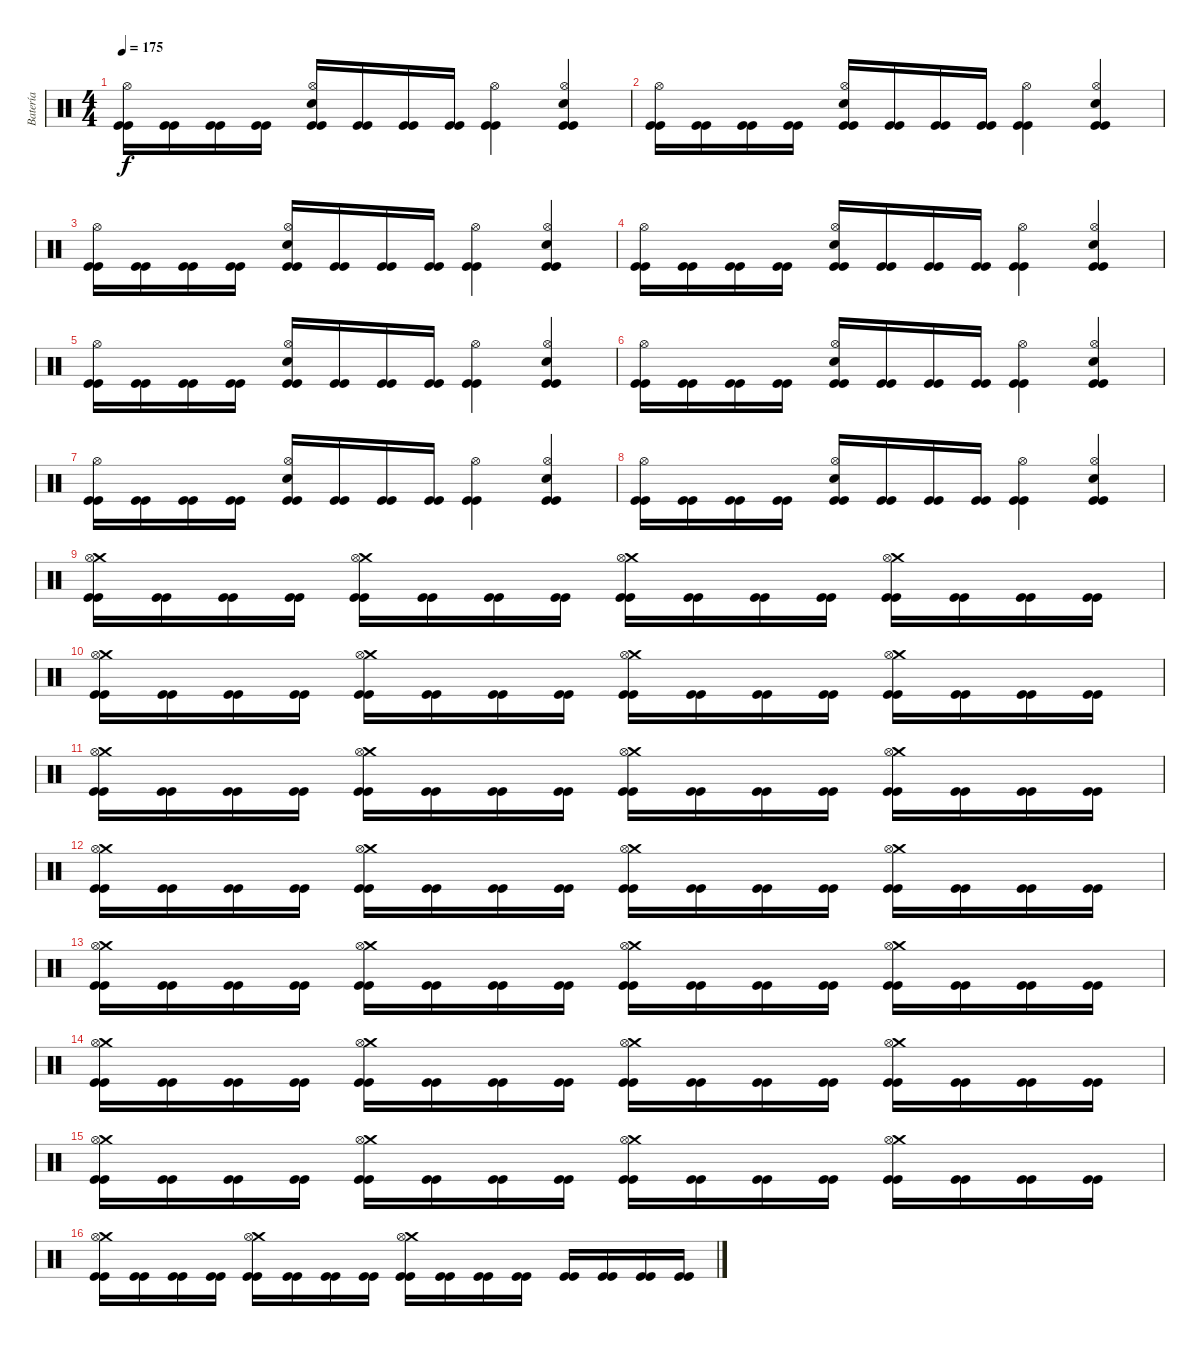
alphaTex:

\track ("Batería" "Batería") {instrument percussion}
\staff {score}
\articulation defaults
\ts (4 4)
\tempo 175
\clef neutral
\ks c
("Kick (hit)" "Kick (hit)" "Hi-Hat (open)").16{dy f} ("Kick (hit)" "Kick (hit)").16 ("Kick (hit)" "Kick (hit)").16 ("Kick (hit)" "Kick (hit)").16 ("Kick (hit)" "Kick (hit)" "Snare (hit) 2" "Hi-Hat (open)").16 ("Kick (hit)" "Kick (hit)").16 ("Kick (hit)" "Kick (hit)").16 ("Kick (hit)" "Kick (hit)").16 ("Kick (hit)" "Kick (hit)" "Hi-Hat (open)").4 ("Kick (hit)" "Kick (hit)" "Snare (hit) 2" "Hi-Hat (open)").4 |
("Kick (hit)" "Kick (hit)" "Hi-Hat (open)").16 ("Kick (hit)" "Kick (hit)").16 ("Kick (hit)" "Kick (hit)").16 ("Kick (hit)" "Kick (hit)").16 ("Kick (hit)" "Kick (hit)" "Snare (hit) 2" "Hi-Hat (open)").16 ("Kick (hit)" "Kick (hit)").16 ("Kick (hit)" "Kick (hit)").16 ("Kick (hit)" "Kick (hit)").16 ("Kick (hit)" "Kick (hit)" "Hi-Hat (open)").4 ("Kick (hit)" "Kick (hit)" "Snare (hit) 2" "Hi-Hat (open)").4 |
("Kick (hit)" "Kick (hit)" "Hi-Hat (open)").16 ("Kick (hit)" "Kick (hit)").16 ("Kick (hit)" "Kick (hit)").16 ("Kick (hit)" "Kick (hit)").16 ("Kick (hit)" "Kick (hit)" "Snare (hit) 2" "Hi-Hat (open)").16 ("Kick (hit)" "Kick (hit)").16 ("Kick (hit)" "Kick (hit)").16 ("Kick (hit)" "Kick (hit)").16 ("Kick (hit)" "Kick (hit)" "Hi-Hat (open)").4 ("Kick (hit)" "Kick (hit)" "Snare (hit) 2" "Hi-Hat (open)").4 |
("Kick (hit)" "Kick (hit)" "Hi-Hat (open)").16 ("Kick (hit)" "Kick (hit)").16 ("Kick (hit)" "Kick (hit)").16 ("Kick (hit)" "Kick (hit)").16 ("Kick (hit)" "Kick (hit)" "Snare (hit) 2" "Hi-Hat (open)").16 ("Kick (hit)" "Kick (hit)").16 ("Kick (hit)" "Kick (hit)").16 ("Kick (hit)" "Kick (hit)").16 ("Kick (hit)" "Kick (hit)" "Hi-Hat (open)").4 ("Kick (hit)" "Kick (hit)" "Snare (hit) 2" "Hi-Hat (open)").4 |
("Kick (hit)" "Kick (hit)" "Hi-Hat (open)").16 ("Kick (hit)" "Kick (hit)").16 ("Kick (hit)" "Kick (hit)").16 ("Kick (hit)" "Kick (hit)").16 ("Kick (hit)" "Kick (hit)" "Snare (hit) 2" "Hi-Hat (open)").16 ("Kick (hit)" "Kick (hit)").16 ("Kick (hit)" "Kick (hit)").16 ("Kick (hit)" "Kick (hit)").16 ("Kick (hit)" "Kick (hit)" "Hi-Hat (open)").4 ("Kick (hit)" "Kick (hit)" "Snare (hit) 2" "Hi-Hat (open)").4 |
("Kick (hit)" "Kick (hit)" "Hi-Hat (open)").16 ("Kick (hit)" "Kick (hit)").16 ("Kick (hit)" "Kick (hit)").16 ("Kick (hit)" "Kick (hit)").16 ("Kick (hit)" "Kick (hit)" "Snare (hit) 2" "Hi-Hat (open)").16 ("Kick (hit)" "Kick (hit)").16 ("Kick (hit)" "Kick (hit)").16 ("Kick (hit)" "Kick (hit)").16 ("Kick (hit)" "Kick (hit)" "Hi-Hat (open)").4 ("Kick (hit)" "Kick (hit)" "Snare (hit) 2" "Hi-Hat (open)").4 |
("Kick (hit)" "Kick (hit)" "Hi-Hat (open)").16 ("Kick (hit)" "Kick (hit)").16 ("Kick (hit)" "Kick (hit)").16 ("Kick (hit)" "Kick (hit)").16 ("Kick (hit)" "Kick (hit)" "Snare (hit) 2" "Hi-Hat (open)").16 ("Kick (hit)" "Kick (hit)").16 ("Kick (hit)" "Kick (hit)").16 ("Kick (hit)" "Kick (hit)").16 ("Kick (hit)" "Kick (hit)" "Hi-Hat (open)").4 ("Kick (hit)" "Kick (hit)" "Snare (hit) 2" "Hi-Hat (open)").4 |
("Kick (hit)" "Kick (hit)" "Hi-Hat (open)").16 ("Kick (hit)" "Kick (hit)").16 ("Kick (hit)" "Kick (hit)").16 ("Kick (hit)" "Kick (hit)").16 ("Kick (hit)" "Kick (hit)" "Snare (hit) 2" "Hi-Hat (open)").16 ("Kick (hit)" "Kick (hit)").16 ("Kick (hit)" "Kick (hit)").16 ("Kick (hit)" "Kick (hit)").16 ("Kick (hit)" "Kick (hit)" "Hi-Hat (open)").4 ("Kick (hit)" "Kick (hit)" "Snare (hit) 2" "Hi-Hat (open)").4 |
("Kick (hit)" "Kick (hit)" "Crash medium (hit)" "Hi-Hat (open)").16 ("Kick (hit)" "Kick (hit)").16 ("Kick (hit)" "Kick (hit)").16 ("Kick (hit)" "Kick (hit)").16 ("Kick (hit)" "Kick (hit)" "Crash medium (hit)" "Hi-Hat (open)").16 ("Kick (hit)" "Kick (hit)").16 ("Kick (hit)" "Kick (hit)").16 ("Kick (hit)" "Kick (hit)").16 ("Kick (hit)" "Kick (hit)" "Crash medium (hit)" "Hi-Hat (open)").16 ("Kick (hit)" "Kick (hit)").16 ("Kick (hit)" "Kick (hit)").16 ("Kick (hit)" "Kick (hit)").16 ("Kick (hit)" "Kick (hit)" "Crash medium (hit)" "Hi-Hat (open)").16 ("Kick (hit)" "Kick (hit)").16 ("Kick (hit)" "Kick (hit)").16 ("Kick (hit)" "Kick (hit)").16 |
("Kick (hit)" "Kick (hit)" "Crash medium (hit)" "Hi-Hat (open)").16 ("Kick (hit)" "Kick (hit)").16 ("Kick (hit)" "Kick (hit)").16 ("Kick (hit)" "Kick (hit)").16 ("Kick (hit)" "Kick (hit)" "Crash medium (hit)" "Hi-Hat (open)").16 ("Kick (hit)" "Kick (hit)").16 ("Kick (hit)" "Kick (hit)").16 ("Kick (hit)" "Kick (hit)").16 ("Kick (hit)" "Kick (hit)" "Crash medium (hit)" "Hi-Hat (open)").16 ("Kick (hit)" "Kick (hit)").16 ("Kick (hit)" "Kick (hit)").16 ("Kick (hit)" "Kick (hit)").16 ("Kick (hit)" "Kick (hit)" "Crash medium (hit)" "Hi-Hat (open)").16 ("Kick (hit)" "Kick (hit)").16 ("Kick (hit)" "Kick (hit)").16 ("Kick (hit)" "Kick (hit)").16 |
("Kick (hit)" "Kick (hit)" "Crash medium (hit)" "Hi-Hat (open)").16 ("Kick (hit)" "Kick (hit)").16 ("Kick (hit)" "Kick (hit)").16 ("Kick (hit)" "Kick (hit)").16 ("Kick (hit)" "Kick (hit)" "Crash medium (hit)" "Hi-Hat (open)").16 ("Kick (hit)" "Kick (hit)").16 ("Kick (hit)" "Kick (hit)").16 ("Kick (hit)" "Kick (hit)").16 ("Kick (hit)" "Kick (hit)" "Crash medium (hit)" "Hi-Hat (open)").16 ("Kick (hit)" "Kick (hit)").16 ("Kick (hit)" "Kick (hit)").16 ("Kick (hit)" "Kick (hit)").16 ("Kick (hit)" "Kick (hit)" "Crash medium (hit)" "Hi-Hat (open)").16 ("Kick (hit)" "Kick (hit)").16 ("Kick (hit)" "Kick (hit)").16 ("Kick (hit)" "Kick (hit)").16 |
("Kick (hit)" "Kick (hit)" "Crash medium (hit)" "Hi-Hat (open)").16 ("Kick (hit)" "Kick (hit)").16 ("Kick (hit)" "Kick (hit)").16 ("Kick (hit)" "Kick (hit)").16 ("Kick (hit)" "Kick (hit)" "Crash medium (hit)" "Hi-Hat (open)").16 ("Kick (hit)" "Kick (hit)").16 ("Kick (hit)" "Kick (hit)").16 ("Kick (hit)" "Kick (hit)").16 ("Kick (hit)" "Kick (hit)" "Crash medium (hit)" "Hi-Hat (open)").16 ("Kick (hit)" "Kick (hit)").16 ("Kick (hit)" "Kick (hit)").16 ("Kick (hit)" "Kick (hit)").16 ("Kick (hit)" "Kick (hit)" "Crash medium (hit)" "Hi-Hat (open)").16 ("Kick (hit)" "Kick (hit)").16 ("Kick (hit)" "Kick (hit)").16 ("Kick (hit)" "Kick (hit)").16 |
("Kick (hit)" "Kick (hit)" "Crash medium (hit)" "Hi-Hat (open)").16 ("Kick (hit)" "Kick (hit)").16 ("Kick (hit)" "Kick (hit)").16 ("Kick (hit)" "Kick (hit)").16 ("Kick (hit)" "Kick (hit)" "Crash medium (hit)" "Hi-Hat (open)").16 ("Kick (hit)" "Kick (hit)").16 ("Kick (hit)" "Kick (hit)").16 ("Kick (hit)" "Kick (hit)").16 ("Kick (hit)" "Kick (hit)" "Crash medium (hit)" "Hi-Hat (open)").16 ("Kick (hit)" "Kick (hit)").16 ("Kick (hit)" "Kick (hit)").16 ("Kick (hit)" "Kick (hit)").16 ("Kick (hit)" "Kick (hit)" "Crash medium (hit)" "Hi-Hat (open)").16 ("Kick (hit)" "Kick (hit)").16 ("Kick (hit)" "Kick (hit)").16 ("Kick (hit)" "Kick (hit)").16 |
("Kick (hit)" "Kick (hit)" "Crash medium (hit)" "Hi-Hat (open)").16 ("Kick (hit)" "Kick (hit)").16 ("Kick (hit)" "Kick (hit)").16 ("Kick (hit)" "Kick (hit)").16 ("Kick (hit)" "Kick (hit)" "Crash medium (hit)" "Hi-Hat (open)").16 ("Kick (hit)" "Kick (hit)").16 ("Kick (hit)" "Kick (hit)").16 ("Kick (hit)" "Kick (hit)").16 ("Kick (hit)" "Kick (hit)" "Crash medium (hit)" "Hi-Hat (open)").16 ("Kick (hit)" "Kick (hit)").16 ("Kick (hit)" "Kick (hit)").16 ("Kick (hit)" "Kick (hit)").16 ("Kick (hit)" "Kick (hit)" "Crash medium (hit)" "Hi-Hat (open)").16 ("Kick (hit)" "Kick (hit)").16 ("Kick (hit)" "Kick (hit)").16 ("Kick (hit)" "Kick (hit)").16 |
("Kick (hit)" "Kick (hit)" "Crash medium (hit)" "Hi-Hat (open)").16 ("Kick (hit)" "Kick (hit)").16 ("Kick (hit)" "Kick (hit)").16 ("Kick (hit)" "Kick (hit)").16 ("Kick (hit)" "Kick (hit)" "Crash medium (hit)" "Hi-Hat (open)").16 ("Kick (hit)" "Kick (hit)").16 ("Kick (hit)" "Kick (hit)").16 ("Kick (hit)" "Kick (hit)").16 ("Kick (hit)" "Kick (hit)" "Crash medium (hit)" "Hi-Hat (open)").16 ("Kick (hit)" "Kick (hit)").16 ("Kick (hit)" "Kick (hit)").16 ("Kick (hit)" "Kick (hit)").16 ("Kick (hit)" "Kick (hit)" "Crash medium (hit)" "Hi-Hat (open)").16 ("Kick (hit)" "Kick (hit)").16 ("Kick (hit)" "Kick (hit)").16 ("Kick (hit)" "Kick (hit)").16 |
("Kick (hit)" "Kick (hit)" "Crash medium (hit)" "Hi-Hat (open)").16 ("Kick (hit)" "Kick (hit)").16 ("Kick (hit)" "Kick (hit)").16 ("Kick (hit)" "Kick (hit)").16 ("Kick (hit)" "Kick (hit)" "Crash medium (hit)" "Hi-Hat (open)").16 ("Kick (hit)" "Kick (hit)").16 ("Kick (hit)" "Kick (hit)").16 ("Kick (hit)" "Kick (hit)").16 ("Kick (hit)" "Kick (hit)" "Crash medium (hit)" "Hi-Hat (open)").16 ("Kick (hit)" "Kick (hit)").16 ("Kick (hit)" "Kick (hit)").16 ("Kick (hit)" "Kick (hit)").16 ("Kick (hit)" "Kick (hit)").16 ("Kick (hit)" "Kick (hit)").16 ("Kick (hit)" "Kick (hit)").16 ("Kick (hit)" "Kick (hit)").16
